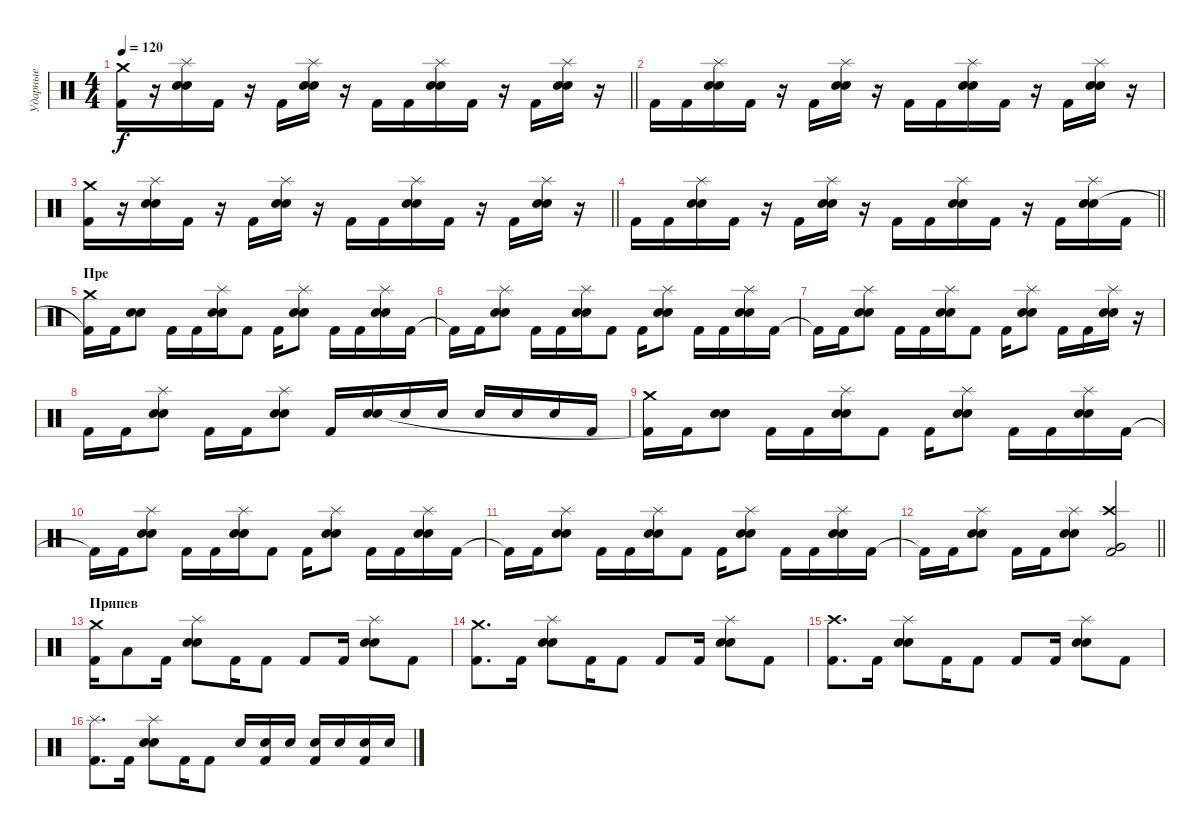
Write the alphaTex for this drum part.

\track ("Ударные" "Ударные") {instrument percussion}
\staff {score}
\articulation defaults
\ts (4 4)
\tempo 120
\clef neutral
\barLineRight lightlight
\ks c
("Crash medium (hit)" "Kick (hit) 2").16{dy f} r.16 ("Splash (hit)" "Electric Snare (hit)" "Snare (hit) 2").16 "Kick (hit) 2".16 r.16 "Kick (hit) 2".16 ("Splash (hit)" "Electric Snare (hit)" "Snare (hit) 2").16 r.16 "Kick (hit) 2".16 "Kick (hit) 2".16 ("Splash (hit)" "Electric Snare (hit)" "Snare (hit) 2").16 "Kick (hit) 2".16 r.16 "Kick (hit) 2".16 ("Splash (hit)" "Electric Snare (hit)" "Snare (hit) 2").16 r.16 |
"Kick (hit) 2".16 "Kick (hit) 2".16 ("Splash (hit)" "Electric Snare (hit)" "Snare (hit) 2").16 "Kick (hit) 2".16 r.16 "Kick (hit) 2".16 ("Splash (hit)" "Electric Snare (hit)" "Snare (hit) 2").16 r.16 "Kick (hit) 2".16 "Kick (hit) 2".16 ("Splash (hit)" "Electric Snare (hit)" "Snare (hit) 2").16 "Kick (hit) 2".16 r.16 "Kick (hit) 2".16 ("Splash (hit)" "Electric Snare (hit)" "Snare (hit) 2").16 r.16 |
\barLineRight lightlight
("Crash medium (hit)" "Kick (hit) 2").16 r.16 ("Splash (hit)" "Electric Snare (hit)" "Snare (hit) 2").16 "Kick (hit) 2".16 r.16 "Kick (hit) 2".16 ("Splash (hit)" "Electric Snare (hit)" "Snare (hit) 2").16 r.16 "Kick (hit) 2".16 "Kick (hit) 2".16 ("Splash (hit)" "Electric Snare (hit)" "Snare (hit) 2").16 "Kick (hit) 2".16 r.16 "Kick (hit) 2".16 ("Splash (hit)" "Electric Snare (hit)" "Snare (hit) 2").16 r.16 |
\barLineRight lightlight "Kick (hit) 2".16 "Kick (hit) 2".16
("Splash (hit)" "Electric Snare (hit)" "Snare (hit) 2").16 "Kick (hit) 2".16 r.16 "Kick (hit) 2".16 ("Splash (hit)" "Electric Snare (hit)" "Snare (hit) 2").16 r.16 "Kick (hit) 2".16 "Kick (hit) 2".16 ("Splash (hit)" "Electric Snare (hit)" "Snare (hit) 2").16 "Kick (hit) 2".16 r.16 "Kick (hit) 2".16 ("Splash (hit)" "Electric Snare (hit)" "Snare (hit) 2").16 "Kick (hit) 2".16 |
\section ("" "Пре")
("Crash medium (hit)" "Kick (hit) 2"{t}).16 "Kick (hit) 2".16 ("Electric Snare (hit)" "Snare (hit) 2").8 "Kick (hit) 2".16 "Kick (hit) 2".16 ("Splash (hit)" "Electric Snare (hit)" "Snare (hit) 2").16 "Kick (hit) 2".8 "Kick (hit) 2".16 ("Splash (hit)" "Electric Snare (hit)" "Snare (hit) 2").8 "Kick (hit) 2".16 "Kick (hit) 2".16 ("Splash (hit)" "Electric Snare (hit)" "Snare (hit) 2").16 "Kick (hit) 2".16 |
"Kick (hit) 2"{t}.16 "Kick (hit) 2".16 ("Splash (hit)" "Electric Snare (hit)" "Snare (hit) 2").8 "Kick (hit) 2".16 "Kick (hit) 2".16 ("Splash (hit)" "Electric Snare (hit)" "Snare (hit) 2").16 "Kick (hit) 2".8 "Kick (hit) 2".16 ("Splash (hit)" "Electric Snare (hit)" "Snare (hit) 2").8 "Kick (hit) 2".16 "Kick (hit) 2".16 ("Splash (hit)" "Electric Snare (hit)" "Snare (hit) 2").16 "Kick (hit) 2".16 |
"Kick (hit) 2"{t}.16 "Kick (hit) 2".16 ("Splash (hit)" "Electric Snare (hit)" "Snare (hit) 2").8 "Kick (hit) 2".16 "Kick (hit) 2".16 ("Splash (hit)" "Electric Snare (hit)" "Snare (hit) 2").16 "Kick (hit) 2".8 "Kick (hit) 2".16 ("Splash (hit)" "Electric Snare (hit)" "Snare (hit) 2").8 "Kick (hit) 2".16 "Kick (hit) 2".16 ("Splash (hit)" "Electric Snare (hit)" "Snare (hit) 2").16 r.16 |
"Kick (hit) 2".16 "Kick (hit) 2".16 ("Splash (hit)" "Electric Snare (hit)" "Snare (hit) 2").8 "Kick (hit) 2".16 "Kick (hit) 2".16 ("Splash (hit)" "Electric Snare (hit)" "Snare (hit) 2").8 "Kick (hit) 2".16 ("Electric Snare (hit)" "Snare (hit) 2").16 "Electric Snare (hit)".16 "Electric Snare (hit)".16 "Electric Snare (hit)".16 "Electric Snare (hit)".16 "Electric Snare (hit)".16 "Kick (hit) 2".16 |
("Crash medium (hit)" "Kick (hit) 2"{t}).16 "Kick (hit) 2".16 ("Electric Snare (hit)" "Snare (hit) 2").8 "Kick (hit) 2".16 "Kick (hit) 2".16 ("Splash (hit)" "Electric Snare (hit)" "Snare (hit) 2").16 "Kick (hit) 2".8 "Kick (hit) 2".16 ("Splash (hit)" "Electric Snare (hit)" "Snare (hit) 2").8 "Kick (hit) 2".16 "Kick (hit) 2".16 ("Splash (hit)" "Electric Snare (hit)" "Snare (hit) 2").16 "Kick (hit) 2".16 |
"Kick (hit) 2"{t}.16 "Kick (hit) 2".16 ("Splash (hit)" "Electric Snare (hit)" "Snare (hit) 2").8 "Kick (hit) 2".16 "Kick (hit) 2".16 ("Splash (hit)" "Electric Snare (hit)" "Snare (hit) 2").16 "Kick (hit) 2".8 "Kick (hit) 2".16 ("Splash (hit)" "Electric Snare (hit)" "Snare (hit) 2").8 "Kick (hit) 2".16 "Kick (hit) 2".16 ("Splash (hit)" "Electric Snare (hit)" "Snare (hit) 2").16 "Kick (hit) 2".16 |
"Kick (hit) 2"{t}.16 "Kick (hit) 2".16 ("Splash (hit)" "Electric Snare (hit)" "Snare (hit) 2").8 "Kick (hit) 2".16 "Kick (hit) 2".16 ("Splash (hit)" "Electric Snare (hit)" "Snare (hit) 2").16 "Kick (hit) 2".8 "Kick (hit) 2".16 ("Splash (hit)" "Electric Snare (hit)" "Snare (hit) 2").8 "Kick (hit) 2".16 "Kick (hit) 2".16 ("Splash (hit)" "Electric Snare (hit)" "Snare (hit) 2").16 "Kick (hit) 2".16 |
\barLineRight lightlight "Kick (hit) 2"{t}.16 "Kick (hit) 2".16
("Splash (hit)" "Electric Snare (hit)" "Snare (hit) 2").8 "Kick (hit) 2".16 "Kick (hit) 2".16 ("Splash (hit)" "Electric Snare (hit)" "Snare (hit) 2").8 ("Crash high (hit)" "Very Low Tom (hit)" "Kick (hit) 2").2 |
\section ("" "Припев")
("Crash medium (hit)" "Kick (hit) 2").16 "Low Tom (hit)".8 "Kick (hit) 2".16 ("Splash (hit)" "Electric Snare (hit)" "Snare (hit) 2").8 "Kick (hit) 2".16 "Kick (hit) 2".8 "Kick (hit) 2".8 "Kick (hit) 2".16 ("Splash (hit)" "Electric Snare (hit)" "Snare (hit) 2").8 "Kick (hit) 2".8 |
("Crash medium (hit)" "Kick (hit) 2").8{d} "Kick (hit) 2".16 ("Splash (hit)" "Electric Snare (hit)" "Snare (hit) 2").8 "Kick (hit) 2".16 "Kick (hit) 2".8 "Kick (hit) 2".8 "Kick (hit) 2".16 ("Splash (hit)" "Electric Snare (hit)" "Snare (hit) 2").8 "Kick (hit) 2".8 |
("Crash high (hit)" "Kick (hit) 2").8{d} "Kick (hit) 2".16 ("Splash (hit)" "Electric Snare (hit)" "Snare (hit) 2").8 "Kick (hit) 2".16 "Kick (hit) 2".8 "Kick (hit) 2".8 "Kick (hit) 2".16 ("Splash (hit)" "Electric Snare (hit)" "Snare (hit) 2").8 "Kick (hit) 2".8 |
("Splash (hit)" "Kick (hit) 2").8{d} "Kick (hit) 2".16 ("Splash (hit)" "Electric Snare (hit)" "Snare (hit) 2").8 "Kick (hit) 2".16 "Kick (hit) 2".8 "Electric Snare (hit)".16 ("Electric Snare (hit)" "Kick (hit) 2").16 "Electric Snare (hit)".16 ("Electric Snare (hit)" "Kick (hit) 2").16 "Electric Snare (hit)".16 ("Electric Snare (hit)" "Kick (hit) 2").16 "Electric Snare (hit)".16
